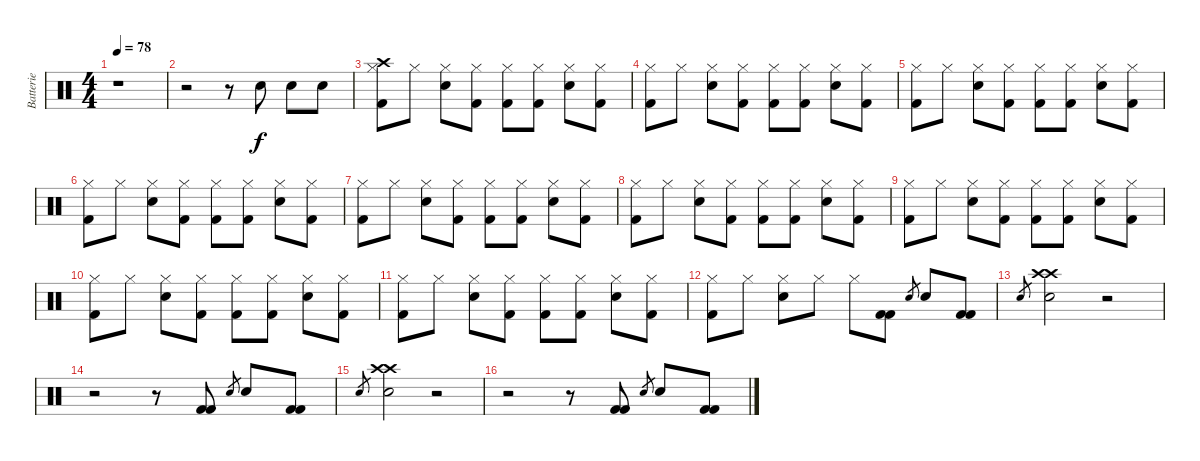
\track ("Batterie" "Batterie") {instrument percussion}
\staff {score}
\articulation defaults
\ts (4 4)
\tempo 78
\clef neutral
\ks c
r.1{dy f} |
r.2 r.8 "Electric Snare (hit)".8 "Electric Snare (hit)".8 "Electric Snare (hit)".8 |
("Hi-Hat (closed)" "Crash high (hit)" "Kick (hit) 2").8 "Hi-Hat (closed)".8 ("Hi-Hat (closed)" "Electric Snare (hit)").8 ("Hi-Hat (closed)" "Kick (hit) 2").8 ("Hi-Hat (closed)" "Kick (hit) 2").8 ("Hi-Hat (closed)" "Kick (hit) 2").8 ("Hi-Hat (closed)" "Electric Snare (hit)").8 ("Hi-Hat (closed)" "Kick (hit) 2").8 |
("Hi-Hat (closed)" "Kick (hit) 2").8 "Hi-Hat (closed)".8 ("Hi-Hat (closed)" "Electric Snare (hit)").8 ("Hi-Hat (closed)" "Kick (hit) 2").8 ("Hi-Hat (closed)" "Kick (hit) 2").8 ("Hi-Hat (closed)" "Kick (hit) 2").8 ("Hi-Hat (closed)" "Electric Snare (hit)").8 ("Hi-Hat (closed)" "Kick (hit) 2").8 |
("Hi-Hat (closed)" "Kick (hit) 2").8 "Hi-Hat (closed)".8 ("Hi-Hat (closed)" "Electric Snare (hit)").8 ("Hi-Hat (closed)" "Kick (hit) 2").8 ("Hi-Hat (closed)" "Kick (hit) 2").8 ("Hi-Hat (closed)" "Kick (hit) 2").8 ("Hi-Hat (closed)" "Electric Snare (hit)").8 ("Hi-Hat (closed)" "Kick (hit) 2").8 |
("Hi-Hat (closed)" "Kick (hit) 2").8 "Hi-Hat (closed)".8 ("Hi-Hat (closed)" "Electric Snare (hit)").8 ("Hi-Hat (closed)" "Kick (hit) 2").8 ("Hi-Hat (closed)" "Kick (hit) 2").8 ("Hi-Hat (closed)" "Kick (hit) 2").8 ("Hi-Hat (closed)" "Electric Snare (hit)").8 ("Hi-Hat (closed)" "Kick (hit) 2").8 |
("Hi-Hat (closed)" "Kick (hit) 2").8 "Hi-Hat (closed)".8 ("Hi-Hat (closed)" "Electric Snare (hit)").8 ("Hi-Hat (closed)" "Kick (hit) 2").8 ("Hi-Hat (closed)" "Kick (hit) 2").8 ("Hi-Hat (closed)" "Kick (hit) 2").8 ("Hi-Hat (closed)" "Electric Snare (hit)").8 ("Hi-Hat (closed)" "Kick (hit) 2").8 |
("Hi-Hat (closed)" "Kick (hit) 2").8 "Hi-Hat (closed)".8 ("Hi-Hat (closed)" "Electric Snare (hit)").8 ("Hi-Hat (closed)" "Kick (hit) 2").8 ("Hi-Hat (closed)" "Kick (hit) 2").8 ("Hi-Hat (closed)" "Kick (hit) 2").8 ("Hi-Hat (closed)" "Electric Snare (hit)").8 ("Hi-Hat (closed)" "Kick (hit) 2").8 |
("Hi-Hat (closed)" "Kick (hit) 2").8 "Hi-Hat (closed)".8 ("Hi-Hat (closed)" "Electric Snare (hit)").8 ("Hi-Hat (closed)" "Kick (hit) 2").8 ("Hi-Hat (closed)" "Kick (hit) 2").8 ("Hi-Hat (closed)" "Kick (hit) 2").8 ("Hi-Hat (closed)" "Electric Snare (hit)").8 ("Hi-Hat (closed)" "Kick (hit) 2").8 |
("Hi-Hat (closed)" "Kick (hit) 2").8 "Hi-Hat (closed)".8 ("Hi-Hat (closed)" "Electric Snare (hit)").8 ("Hi-Hat (closed)" "Kick (hit) 2").8 ("Hi-Hat (closed)" "Kick (hit) 2").8 ("Hi-Hat (closed)" "Kick (hit) 2").8 ("Hi-Hat (closed)" "Electric Snare (hit)").8 ("Hi-Hat (closed)" "Kick (hit) 2").8 |
("Hi-Hat (closed)" "Kick (hit) 2").8 "Hi-Hat (closed)".8 ("Hi-Hat (closed)" "Electric Snare (hit)").8 ("Hi-Hat (closed)" "Kick (hit) 2").8 ("Hi-Hat (closed)" "Kick (hit) 2").8 ("Hi-Hat (closed)" "Kick (hit) 2").8 ("Hi-Hat (closed)" "Electric Snare (hit)").8 ("Hi-Hat (closed)" "Kick (hit) 2").8 |
("Hi-Hat (closed)" "Kick (hit) 2").8 "Hi-Hat (closed)".8 ("Hi-Hat (closed)" "Electric Snare (hit)").8 "Hi-Hat (closed)".8 "Hi-Hat (closed)".8 ("Kick (hit) 2" "Kick (hit) 2").8 "Electric Snare (hit)".8{gr} "Electric Snare (hit)".8 ("Kick (hit) 2" "Kick (hit) 2").8 |
"Electric Snare (hit)".8{gr} ("Crash high (hit)" "Crash high (hit)" "Electric Snare (hit)").2 r.2 |
r.2 r.8 ("Kick (hit) 2" "Kick (hit) 2").8 "Electric Snare (hit)".8{gr} "Electric Snare (hit)".8 ("Kick (hit) 2" "Kick (hit) 2").8 |
"Electric Snare (hit)".8{gr} ("Crash high (hit)" "Crash high (hit)" "Electric Snare (hit)").2 r.2 |
r.2 r.8 ("Kick (hit) 2" "Kick (hit) 2").8 "Electric Snare (hit)".8{gr} "Electric Snare (hit)".8 ("Kick (hit) 2" "Kick (hit) 2").8
